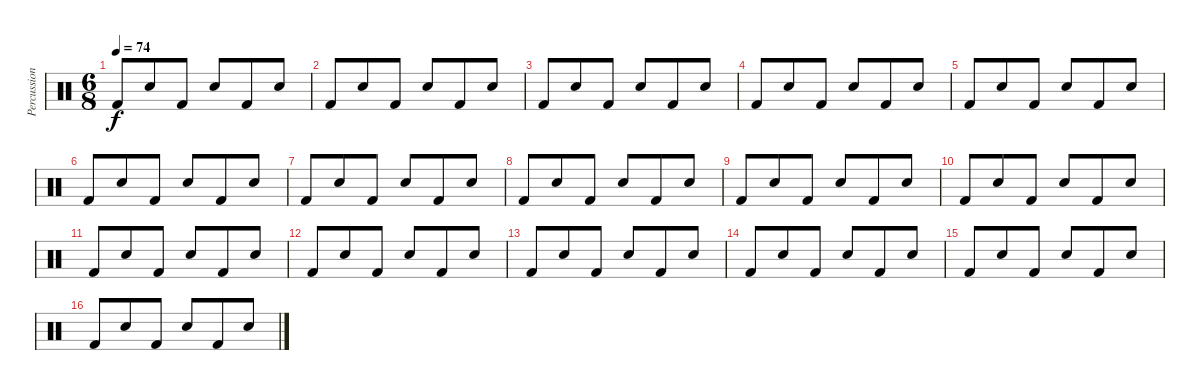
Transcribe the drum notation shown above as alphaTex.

\track ("Percussion" "Percussion") {instrument percussion}
\staff {score}
\articulation defaults
\ts (6 8)
\tempo 74
\clef neutral
\ks c "Kick (hit) 2".8{dy f} "Snare (hit) 2".8 "Kick (hit) 2".8 "Snare (hit) 2".8 "Kick (hit) 2".8 "Snare (hit) 2".8
|
"Kick (hit) 2".8 "Snare (hit) 2".8 "Kick (hit) 2".8 "Snare (hit) 2".8 "Kick (hit) 2".8 "Snare (hit) 2".8 |
"Kick (hit) 2".8 "Snare (hit) 2".8 "Kick (hit) 2".8 "Snare (hit) 2".8 "Kick (hit) 2".8 "Snare (hit) 2".8 |
"Kick (hit) 2".8 "Snare (hit) 2".8 "Kick (hit) 2".8 "Snare (hit) 2".8 "Kick (hit) 2".8 "Snare (hit) 2".8 |
"Kick (hit) 2".8 "Snare (hit) 2".8 "Kick (hit) 2".8 "Snare (hit) 2".8 "Kick (hit) 2".8 "Snare (hit) 2".8 |
"Kick (hit) 2".8 "Snare (hit) 2".8 "Kick (hit) 2".8 "Snare (hit) 2".8 "Kick (hit) 2".8 "Snare (hit) 2".8 |
"Kick (hit) 2".8 "Snare (hit) 2".8 "Kick (hit) 2".8 "Snare (hit) 2".8 "Kick (hit) 2".8 "Snare (hit) 2".8 |
"Kick (hit) 2".8 "Snare (hit) 2".8 "Kick (hit) 2".8 "Snare (hit) 2".8 "Kick (hit) 2".8 "Snare (hit) 2".8 |
"Kick (hit) 2".8 "Snare (hit) 2".8 "Kick (hit) 2".8 "Snare (hit) 2".8 "Kick (hit) 2".8 "Snare (hit) 2".8 |
"Kick (hit) 2".8 "Snare (hit) 2".8 "Kick (hit) 2".8 "Snare (hit) 2".8 "Kick (hit) 2".8 "Snare (hit) 2".8 |
"Kick (hit) 2".8 "Snare (hit) 2".8 "Kick (hit) 2".8 "Snare (hit) 2".8 "Kick (hit) 2".8 "Snare (hit) 2".8 |
"Kick (hit) 2".8 "Snare (hit) 2".8 "Kick (hit) 2".8 "Snare (hit) 2".8 "Kick (hit) 2".8 "Snare (hit) 2".8 |
"Kick (hit) 2".8 "Snare (hit) 2".8 "Kick (hit) 2".8 "Snare (hit) 2".8 "Kick (hit) 2".8 "Snare (hit) 2".8 |
"Kick (hit) 2".8 "Snare (hit) 2".8 "Kick (hit) 2".8 "Snare (hit) 2".8 "Kick (hit) 2".8 "Snare (hit) 2".8 |
"Kick (hit) 2".8 "Snare (hit) 2".8 "Kick (hit) 2".8 "Snare (hit) 2".8 "Kick (hit) 2".8 "Snare (hit) 2".8 |
"Kick (hit) 2".8 "Snare (hit) 2".8 "Kick (hit) 2".8 "Snare (hit) 2".8 "Kick (hit) 2".8 "Snare (hit) 2".8
